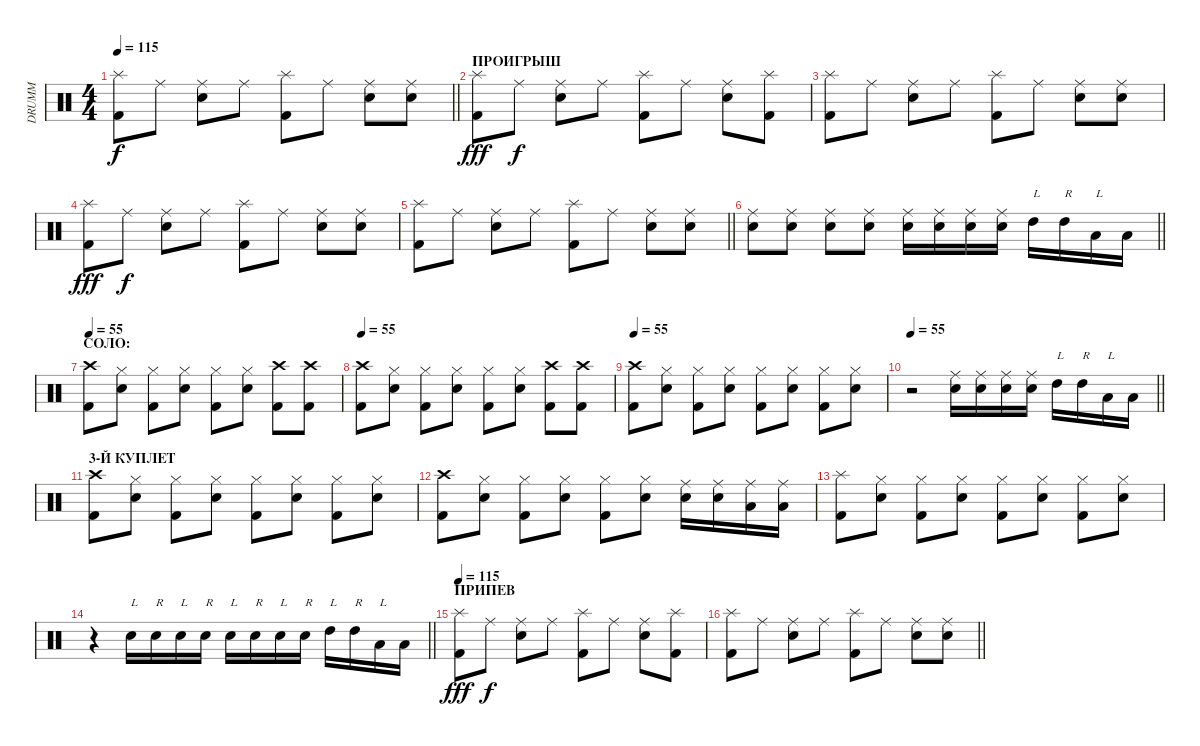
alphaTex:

\track ("DRUMM" "DRUMM") {instrument percussion}
\staff {score}
\articulation defaults
\ts (4 4)
\tempo 115
\clef neutral
\barLineRight lightlight
\ks c
("Kick (hit) 2" "Splash (hit)").8{dy f} "Ride (middle)".8 ("Ride (middle)" "Electric Snare (hit)").8 "Ride (middle)".8 ("Kick (hit) 2" "Splash (hit)").8 "Ride (middle)".8 ("Ride (middle)" "Electric Snare (hit)").8 ("Ride (middle)" "Electric Snare (hit)").8 |
\section ("" "ПРОИГРЫШ ")
("Kick (hit) 2" "Splash (hit)").8{dy fff} "Ride (middle)".8{dy f} ("Ride (middle)" "Electric Snare (hit)").8 "Ride (middle)".8 ("Kick (hit) 2" "Splash (hit)").8 "Ride (middle)".8 ("Ride (middle)" "Electric Snare (hit)").8 ("Kick (hit) 2" "Splash (hit)").8 |
("Kick (hit) 2" "Splash (hit)").8 "Ride (middle)".8 ("Ride (middle)" "Electric Snare (hit)").8 "Ride (middle)".8 ("Kick (hit) 2" "Splash (hit)").8 "Ride (middle)".8 ("Ride (middle)" "Electric Snare (hit)").8 ("Ride (middle)" "Electric Snare (hit)").8 |
("Kick (hit) 2" "Splash (hit)").8{dy fff} "Ride (middle)".8{dy f} ("Ride (middle)" "Electric Snare (hit)").8 "Ride (middle)".8 ("Kick (hit) 2" "Splash (hit)").8 "Ride (middle)".8 ("Ride (middle)" "Electric Snare (hit)").8 ("Ride (middle)" "Electric Snare (hit)").8 |
\barLineRight lightlight
("Kick (hit) 2" "Splash (hit)").8 "Ride (middle)".8 ("Ride (middle)" "Electric Snare (hit)").8 "Ride (middle)".8 ("Kick (hit) 2" "Splash (hit)").8 "Ride (middle)".8 ("Ride (middle)" "Electric Snare (hit)").8 ("Ride (middle)" "Electric Snare (hit)").8 |
\section ("" "")
\barLineRight lightlight
("Ride (middle)" "Electric Snare (hit)").8 ("Ride (middle)" "Electric Snare (hit)").8 ("Ride (middle)" "Electric Snare (hit)").8 ("Ride (middle)" "Electric Snare (hit)").8 ("Ride (middle)" "Electric Snare (hit)").16 ("Ride (middle)" "Electric Snare (hit)").16 ("Ride (middle)" "Electric Snare (hit)").16 ("Ride (middle)" "Electric Snare (hit)").16 "High Tom (hit)".16{txt "L"} "High Tom (hit)".16{txt "R"} "Low Tom (hit)".16{txt "L"} "Low Tom (hit)".16 |
\section ("" "СОЛО:")
\tempo 55
("Crash high (hit)" "Kick (hit) 2").8 ("Hi-Hat (closed)" "Electric Snare (hit)").8 ("Hi-Hat (closed)" "Kick (hit) 2").8 ("Hi-Hat (closed)" "Electric Snare (hit)").8 ("Hi-Hat (closed)" "Kick (hit) 2").8 ("Hi-Hat (closed)" "Electric Snare (hit)").8 ("Crash high (hit)" "Kick (hit) 2").8 ("Crash high (hit)" "Kick (hit) 2").8 |
\tempo 55
("Crash high (hit)" "Kick (hit) 2").8 ("Hi-Hat (closed)" "Electric Snare (hit)").8 ("Hi-Hat (closed)" "Kick (hit) 2").8 ("Hi-Hat (closed)" "Electric Snare (hit)").8 ("Hi-Hat (closed)" "Kick (hit) 2").8 ("Hi-Hat (closed)" "Electric Snare (hit)").8 ("Crash high (hit)" "Kick (hit) 2").8 ("Crash high (hit)" "Kick (hit) 2").8 |
\tempo 55
("Crash high (hit)" "Kick (hit) 2").8 ("Hi-Hat (closed)" "Electric Snare (hit)").8 ("Hi-Hat (closed)" "Kick (hit) 2").8 ("Hi-Hat (closed)" "Electric Snare (hit)").8 ("Hi-Hat (closed)" "Kick (hit) 2").8 ("Hi-Hat (closed)" "Electric Snare (hit)").8 ("Hi-Hat (closed)" "Kick (hit) 2").8 ("Hi-Hat (closed)" "Electric Snare (hit)").8 |
\tempo 55
\barLineRight lightlight
r.2 ("Ride (middle)" "Electric Snare (hit)").16 ("Ride (middle)" "Electric Snare (hit)").16 ("Ride (middle)" "Electric Snare (hit)").16 ("Ride (middle)" "Electric Snare (hit)").16 "High Tom (hit)".16{txt "L"} "High Tom (hit)".16{txt "R"} "Low Tom (hit)".16{txt "L"} "Low Tom (hit)".16 |
\section ("" "3-Й КУПЛЕТ")
("Crash high (hit)" "Kick (hit) 2").8 ("Hi-Hat (closed)" "Electric Snare (hit)").8 ("Hi-Hat (closed)" "Kick (hit) 2").8 ("Hi-Hat (closed)" "Electric Snare (hit)").8 ("Hi-Hat (closed)" "Kick (hit) 2").8 ("Hi-Hat (closed)" "Electric Snare (hit)").8 ("Hi-Hat (closed)" "Kick (hit) 2").8 ("Hi-Hat (closed)" "Electric Snare (hit)").8 |
("Crash high (hit)" "Kick (hit) 2").8 ("Hi-Hat (closed)" "Electric Snare (hit)").8 ("Hi-Hat (closed)" "Kick (hit) 2").8 ("Hi-Hat (closed)" "Electric Snare (hit)").8 ("Hi-Hat (closed)" "Kick (hit) 2").8 ("Hi-Hat (closed)" "Electric Snare (hit)").8 ("Ride (middle)" "Electric Snare (hit)").16 ("Ride (middle)" "Electric Snare (hit)").16 ("Ride (middle)" "Low Tom (hit)").16 ("Ride (middle)" "Low Tom (hit)").16 |
("Kick (hit) 2" "Splash (hit)").8 ("Hi-Hat (closed)" "Electric Snare (hit)").8 ("Hi-Hat (closed)" "Kick (hit) 2").8 ("Hi-Hat (closed)" "Electric Snare (hit)").8 ("Hi-Hat (closed)" "Kick (hit) 2").8 ("Hi-Hat (closed)" "Electric Snare (hit)").8 ("Hi-Hat (closed)" "Kick (hit) 2").8 ("Hi-Hat (closed)" "Electric Snare (hit)").8 |
\barLineRight lightlight
r.4 "Electric Snare (hit)".16{txt "L"} "Electric Snare (hit)".16{txt "R"} "Electric Snare (hit)".16{txt "L"} "Electric Snare (hit)".16{txt "R"} "Electric Snare (hit)".16{txt "L"} "Electric Snare (hit)".16{txt "R"} "Electric Snare (hit)".16{txt "L"} "Electric Snare (hit)".16{txt "R"} "High Tom (hit)".16{txt "L"} "High Tom (hit)".16{txt "R"} "Low Tom (hit)".16{txt "L"} "Low Tom (hit)".16 |
\section ("" "ПРИПЕВ")
\tempo 115
("Kick (hit) 2" "Splash (hit)").8{dy fff} "Ride (middle)".8{dy f} ("Ride (middle)" "Electric Snare (hit)").8 "Ride (middle)".8 ("Kick (hit) 2" "Splash (hit)").8 "Ride (middle)".8 ("Ride (middle)" "Electric Snare (hit)").8 ("Kick (hit) 2" "Splash (hit)").8 |
\barLineRight lightlight
("Kick (hit) 2" "Splash (hit)").8 "Ride (middle)".8 ("Ride (middle)" "Electric Snare (hit)").8 "Ride (middle)".8 ("Kick (hit) 2" "Splash (hit)").8 "Ride (middle)".8 ("Ride (middle)" "Electric Snare (hit)").8 ("Ride (middle)" "Electric Snare (hit)").8
